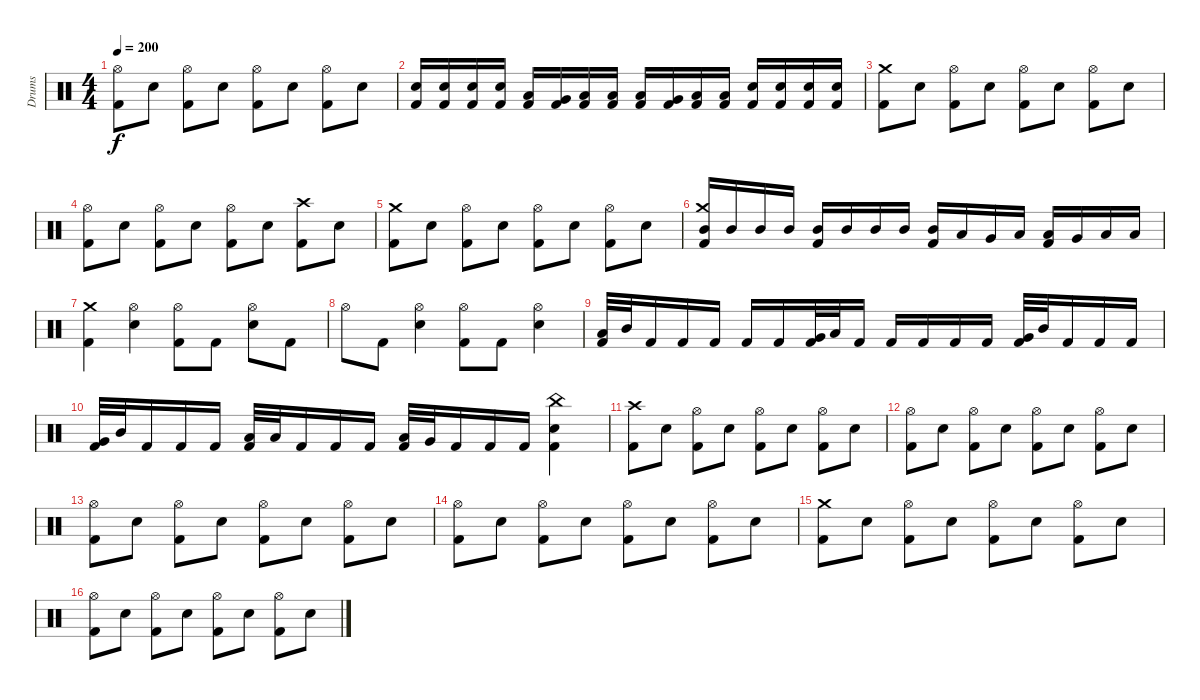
\track ("Drums" "Drums") {instrument percussion}
\staff {score}
\articulation defaults
\ts (4 4)
\tempo 200
\clef neutral
\ks c
("Hi-Hat (open)" "Kick (hit) 2").8{dy f} "Electric Snare (hit)".8 ("Hi-Hat (open)" "Kick (hit) 2").8 "Electric Snare (hit)".8 ("Hi-Hat (open)" "Kick (hit) 2").8 "Electric Snare (hit)".8 ("Hi-Hat (open)" "Kick (hit) 2").8 "Electric Snare (hit)".8 |
("Electric Snare (hit)" "Kick (hit) 2").16 ("Electric Snare (hit)" "Kick (hit) 2").16 ("Electric Snare (hit)" "Kick (hit) 2").16 ("Electric Snare (hit)" "Kick (hit) 2").16 ("Low Tom (hit)" "Kick (hit) 2").16 ("Very Low Tom (hit)" "Kick (hit) 2").16 ("Low Floor Tom (hit)" "Kick (hit) 2").16 ("Low Floor Tom (hit)" "Kick (hit) 2").16 ("Low Tom (hit)" "Kick (hit) 2").16 ("Very Low Tom (hit)" "Kick (hit) 2").16 ("Low Floor Tom (hit)" "Kick (hit) 2").16 ("Low Floor Tom (hit)" "Kick (hit) 2").16 ("Electric Snare (hit)" "Kick (hit) 2").16 ("Electric Snare (hit)" "Kick (hit) 2").16 ("Electric Snare (hit)" "Kick (hit) 2").16 ("Electric Snare (hit)" "Kick (hit) 2").16 |
("Crash medium (hit)" "Kick (hit) 2").8 "Electric Snare (hit)".8 ("Hi-Hat (open)" "Kick (hit) 2").8 "Electric Snare (hit)".8 ("Hi-Hat (open)" "Kick (hit) 2").8 "Electric Snare (hit)".8 ("Hi-Hat (open)" "Kick (hit) 2").8 "Electric Snare (hit)".8 |
("Hi-Hat (open)" "Kick (hit) 2").8 "Electric Snare (hit)".8 ("Hi-Hat (open)" "Kick (hit) 2").8 "Electric Snare (hit)".8 ("Hi-Hat (open)" "Kick (hit) 2").8 "Electric Snare (hit)".8 ("Crash high (hit)" "Kick (hit) 2").8 "Electric Snare (hit)".8 |
("Crash medium (hit)" "Kick (hit) 2").8 "Electric Snare (hit)".8 ("Hi-Hat (open)" "Kick (hit) 2").8 "Electric Snare (hit)".8 ("Hi-Hat (open)" "Kick (hit) 2").8 "Electric Snare (hit)".8 ("Hi-Hat (open)" "Kick (hit) 2").8 "Electric Snare (hit)".8 |
("Crash medium (hit)" "Mid Tom (hit)" "Kick (hit) 2").16 "Mid Tom (hit)".16 "Mid Tom (hit)".16 "Mid Tom (hit)".16 ("Mid Tom (hit)" "Kick (hit) 2").16 "Mid Tom (hit)".16 "Mid Tom (hit)".16 "Mid Tom (hit)".16 ("Mid Tom (hit)" "Kick (hit) 2").16 "Low Tom (hit)".16 "Very Low Tom (hit)".16 "Low Floor Tom (hit)".16 ("Low Tom (hit)" "Kick (hit) 2").16 "Very Low Tom (hit)".16 "Low Floor Tom (hit)".16 "Low Floor Tom (hit)".16 |
("Crash medium (hit)" "Kick (hit) 2").4 ("Hi-Hat (open)" "Electric Snare (hit)").4 ("Hi-Hat (open)" "Kick (hit) 2").8 "Kick (hit) 2".8 ("Hi-Hat (open)" "Electric Snare (hit)").8 "Kick (hit) 2".8 |
"Hi-Hat (open)".8 "Kick (hit) 2".8 ("Hi-Hat (open)" "Electric Snare (hit)").4 ("Hi-Hat (open)" "Kick (hit) 2").8 "Kick (hit) 2".8 ("Hi-Hat (open)" "Electric Snare (hit)").4 |
("Low Tom (hit)" "Kick (hit) 2").32 "Mid Tom (hit)".32 "Kick (hit) 2".16 "Kick (hit) 2".16 "Kick (hit) 2".16 "Kick (hit) 2".16 "Kick (hit) 2".16 ("Very Low Tom (hit)" "Kick (hit) 2").32 "Low Tom (hit)".32 "Kick (hit) 2".16 "Kick (hit) 2".16 "Kick (hit) 2".16 "Kick (hit) 2".16 "Kick (hit) 2".16 ("Very Low Tom (hit)" "Kick (hit) 2").32 "Mid Tom (hit)".32 "Kick (hit) 2".16 "Kick (hit) 2".16 "Kick (hit) 2".16 |
("Very Low Tom (hit)" "Kick (hit) 2").32 "Mid Tom (hit)".32 "Kick (hit) 2".16 "Kick (hit) 2".16 "Kick (hit) 2".16 ("Low Floor Tom (hit)" "Kick (hit) 2").32 "Low Tom (hit)".32 "Kick (hit) 2".16 "Kick (hit) 2".16 "Kick (hit) 2".16 ("Low Floor Tom (hit)" "Kick (hit) 2").32 "Very Low Tom (hit)".32 "Kick (hit) 2".16 "Kick (hit) 2".16 "Kick (hit) 2".16 ("China (hit)" "Electric Snare (hit)" "Kick (hit) 2").4 |
("Crash high (hit)" "Kick (hit) 2").8 "Electric Snare (hit)".8 ("Hi-Hat (open)" "Kick (hit) 2").8 "Electric Snare (hit)".8 ("Hi-Hat (open)" "Kick (hit) 2").8 "Electric Snare (hit)".8 ("Hi-Hat (open)" "Kick (hit) 2").8 "Electric Snare (hit)".8 |
("Hi-Hat (open)" "Kick (hit) 2").8 "Electric Snare (hit)".8 ("Hi-Hat (open)" "Kick (hit) 2").8 "Electric Snare (hit)".8 ("Hi-Hat (open)" "Kick (hit) 2").8 "Electric Snare (hit)".8 ("Hi-Hat (open)" "Kick (hit) 2").8 "Electric Snare (hit)".8 |
("Hi-Hat (open)" "Kick (hit) 2").8 "Electric Snare (hit)".8 ("Hi-Hat (open)" "Kick (hit) 2").8 "Electric Snare (hit)".8 ("Hi-Hat (open)" "Kick (hit) 2").8 "Electric Snare (hit)".8 ("Hi-Hat (open)" "Kick (hit) 2").8 "Electric Snare (hit)".8 |
("Hi-Hat (open)" "Kick (hit) 2").8 "Electric Snare (hit)".8 ("Hi-Hat (open)" "Kick (hit) 2").8 "Electric Snare (hit)".8 ("Hi-Hat (open)" "Kick (hit) 2").8 "Electric Snare (hit)".8 ("Hi-Hat (open)" "Kick (hit) 2").8 "Electric Snare (hit)".8 |
("Crash medium (hit)" "Kick (hit) 2").8 "Electric Snare (hit)".8 ("Hi-Hat (open)" "Kick (hit) 2").8 "Electric Snare (hit)".8 ("Hi-Hat (open)" "Kick (hit) 2").8 "Electric Snare (hit)".8 ("Hi-Hat (open)" "Kick (hit) 2").8 "Electric Snare (hit)".8 |
("Hi-Hat (open)" "Kick (hit) 2").8 "Electric Snare (hit)".8 ("Hi-Hat (open)" "Kick (hit) 2").8 "Electric Snare (hit)".8 ("Hi-Hat (open)" "Kick (hit) 2").8 "Electric Snare (hit)".8 ("Hi-Hat (open)" "Kick (hit) 2").8 "Electric Snare (hit)".8
